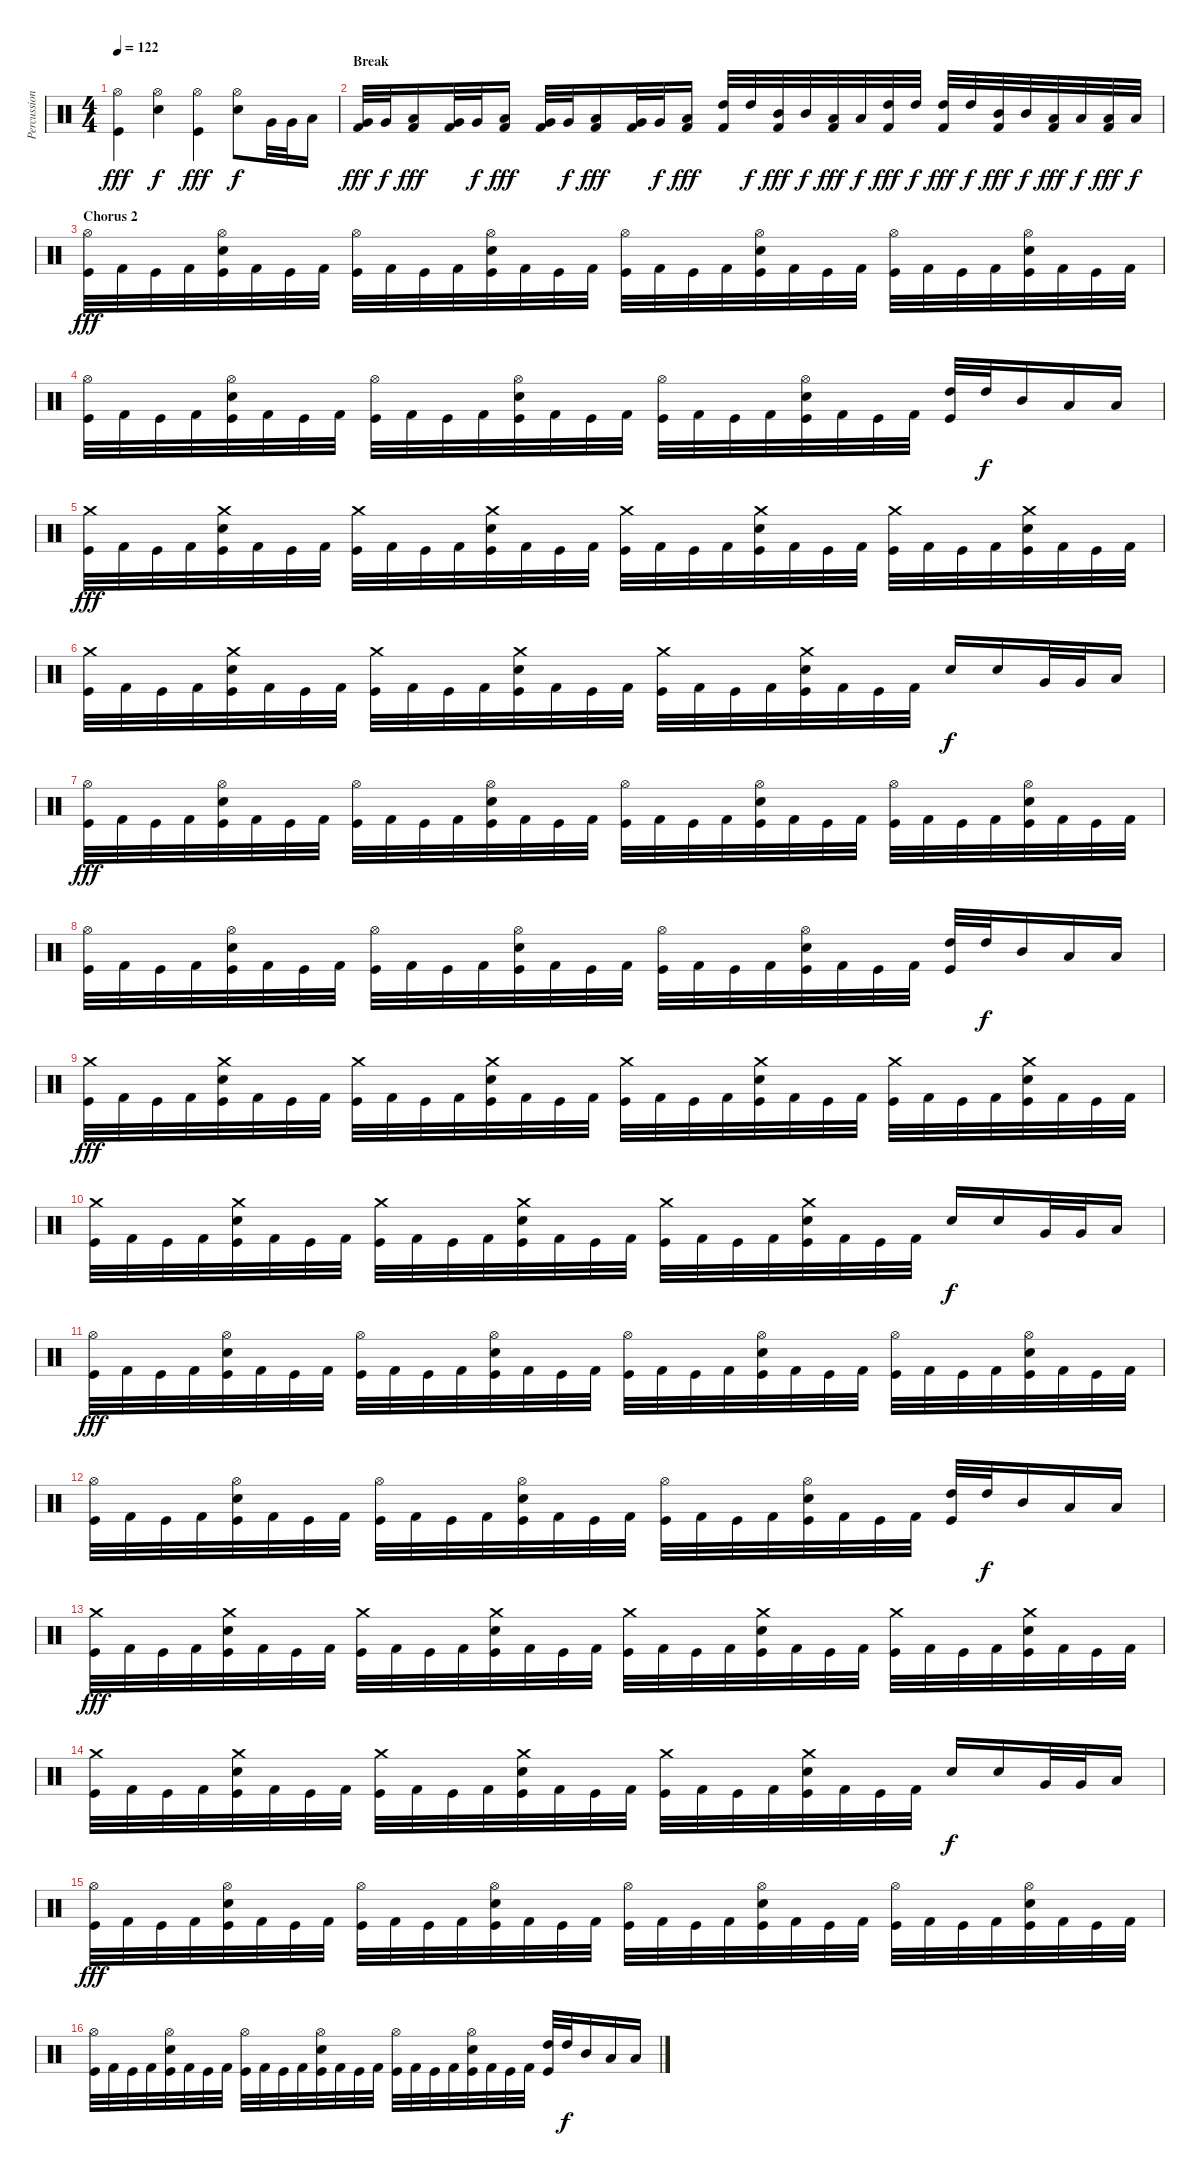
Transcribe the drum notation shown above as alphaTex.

\track ("Percussion" "Percussion") {instrument percussion}
\staff {score}
\articulation defaults
\ts (4 4)
\tempo 122
\clef neutral
\ks c
("Hi-Hat (open)" "Kick (hit)").4{dy fff} ("Hi-Hat (open)" "Electric Snare (hit)").4{dy f} ("Hi-Hat (open)" "Kick (hit)").4{dy fff} ("Hi-Hat (open)" "Electric Snare (hit)").8{dy f} "Very Low Tom (hit)".32 "Very Low Tom (hit)".32 "Low Floor Tom (hit)".16 |
\section ("" "Break")
("Very Low Tom (hit)" "Kick (hit) 2").32{dy fff volume 16} "Very Low Tom (hit)".32{dy f} ("Low Floor Tom (hit)" "Kick (hit) 2").16{dy fff} ("Very Low Tom (hit)" "Kick (hit) 2").32 "Very Low Tom (hit)".32{dy f} ("Low Floor Tom (hit)" "Kick (hit) 2").16{dy fff} ("Very Low Tom (hit)" "Kick (hit) 2").32 "Very Low Tom (hit)".32{dy f} ("Low Floor Tom (hit)" "Kick (hit) 2").16{dy fff} ("Very Low Tom (hit)" "Kick (hit) 2").32 "Very Low Tom (hit)".32{dy f} ("Low Floor Tom (hit)" "Kick (hit) 2").16{dy fff} ("High Tom (hit)" "Kick (hit) 2").32 "High Tom (hit)".32{dy f} ("Mid Tom (hit)" "Kick (hit) 2").32{dy fff} "Mid Tom (hit)".32{dy f} ("Low Tom (hit)" "Kick (hit) 2").32{dy fff} "Low Tom (hit)".32{dy f} ("High Tom (hit)" "Kick (hit) 2").32{dy fff} "High Tom (hit)".32{dy f} ("High Tom (hit)" "Kick (hit) 2").32{dy fff} "High Tom (hit)".32{dy f} ("Mid Tom (hit)" "Kick (hit) 2").32{dy fff} "Mid Tom (hit)".32{dy f} ("Low Tom (hit)" "Kick (hit) 2").32{dy fff} "Low Tom (hit)".32{dy f} ("Low Tom (hit)" "Kick (hit) 2").32{dy fff} "Low Tom (hit)".32{dy f} |
\section ("" "Chorus 2")
("Hi-Hat (open)" "Kick (hit)").32{dy fff} "Kick (hit) 2".32 "Kick (hit)".32 "Kick (hit) 2".32 ("Hi-Hat (open)" "Snare (hit) 2" "Kick (hit)").32 "Kick (hit) 2".32 "Kick (hit)".32 "Kick (hit) 2".32 ("Hi-Hat (open)" "Kick (hit)").32 "Kick (hit) 2".32 "Kick (hit)".32 "Kick (hit) 2".32 ("Hi-Hat (open)" "Snare (hit) 2" "Kick (hit)").32 "Kick (hit) 2".32 "Kick (hit)".32 "Kick (hit) 2".32 ("Hi-Hat (open)" "Kick (hit)").32 "Kick (hit) 2".32 "Kick (hit)".32 "Kick (hit) 2".32 ("Hi-Hat (open)" "Snare (hit) 2" "Kick (hit)").32 "Kick (hit) 2".32 "Kick (hit)".32 "Kick (hit) 2".32 ("Hi-Hat (open)" "Kick (hit)").32 "Kick (hit) 2".32 "Kick (hit)".32 "Kick (hit) 2".32 ("Hi-Hat (open)" "Snare (hit) 2" "Kick (hit)").32 "Kick (hit) 2".32 "Kick (hit)".32 "Kick (hit) 2".32 |
("Hi-Hat (open)" "Kick (hit)").32 "Kick (hit) 2".32 "Kick (hit)".32 "Kick (hit) 2".32 ("Hi-Hat (open)" "Snare (hit) 2" "Kick (hit)").32 "Kick (hit) 2".32 "Kick (hit)".32 "Kick (hit) 2".32 ("Hi-Hat (open)" "Kick (hit)").32 "Kick (hit) 2".32 "Kick (hit)".32 "Kick (hit) 2".32 ("Hi-Hat (open)" "Snare (hit) 2" "Kick (hit)").32 "Kick (hit) 2".32 "Kick (hit)".32 "Kick (hit) 2".32 ("Hi-Hat (open)" "Kick (hit)").32 "Kick (hit) 2".32 "Kick (hit)".32 "Kick (hit) 2".32 ("Hi-Hat (open)" "Snare (hit) 2" "Kick (hit)").32 "Kick (hit) 2".32 "Kick (hit)".32 "Kick (hit) 2".32 ("High Tom (hit)" "Kick (hit)").32 "High Tom (hit)".32{dy f} "Mid Tom (hit)".16 "Low Tom (hit)".16 "Low Tom (hit)".16 |
("Crash medium (hit)" "Kick (hit)").32{dy fff} "Kick (hit) 2".32 "Kick (hit)".32 "Kick (hit) 2".32 ("Crash medium (hit)" "Snare (hit) 2" "Kick (hit)").32 "Kick (hit) 2".32 "Kick (hit)".32 "Kick (hit) 2".32 ("Crash medium (hit)" "Kick (hit)").32 "Kick (hit) 2".32 "Kick (hit)".32 "Kick (hit) 2".32 ("Crash medium (hit)" "Snare (hit) 2" "Kick (hit)").32 "Kick (hit) 2".32 "Kick (hit)".32 "Kick (hit) 2".32 ("Crash medium (hit)" "Kick (hit)").32 "Kick (hit) 2".32 "Kick (hit)".32 "Kick (hit) 2".32 ("Crash medium (hit)" "Snare (hit) 2" "Kick (hit)").32 "Kick (hit) 2".32 "Kick (hit)".32 "Kick (hit) 2".32 ("Crash medium (hit)" "Kick (hit)").32 "Kick (hit) 2".32 "Kick (hit)".32 "Kick (hit) 2".32 ("Crash medium (hit)" "Snare (hit) 2" "Kick (hit)").32 "Kick (hit) 2".32 "Kick (hit)".32 "Kick (hit) 2".32 |
("Crash medium (hit)" "Kick (hit)").32 "Kick (hit) 2".32 "Kick (hit)".32 "Kick (hit) 2".32 ("Crash medium (hit)" "Snare (hit) 2" "Kick (hit)").32 "Kick (hit) 2".32 "Kick (hit)".32 "Kick (hit) 2".32 ("Crash medium (hit)" "Kick (hit)").32 "Kick (hit) 2".32 "Kick (hit)".32 "Kick (hit) 2".32 ("Crash medium (hit)" "Snare (hit) 2" "Kick (hit)").32 "Kick (hit) 2".32 "Kick (hit)".32 "Kick (hit) 2".32 ("Crash medium (hit)" "Kick (hit)").32 "Kick (hit) 2".32 "Kick (hit)".32 "Kick (hit) 2".32 ("Crash medium (hit)" "Snare (hit) 2" "Kick (hit)").32 "Kick (hit) 2".32 "Kick (hit)".32 "Kick (hit) 2".32 "Snare (hit) 2".16{dy f} "Snare (hit) 2".16 "Very Low Tom (hit)".32 "Very Low Tom (hit)".32 "Low Floor Tom (hit)".16 |
("Hi-Hat (open)" "Kick (hit)").32{dy fff} "Kick (hit) 2".32 "Kick (hit)".32 "Kick (hit) 2".32 ("Hi-Hat (open)" "Snare (hit) 2" "Kick (hit)").32 "Kick (hit) 2".32 "Kick (hit)".32 "Kick (hit) 2".32 ("Hi-Hat (open)" "Kick (hit)").32 "Kick (hit) 2".32 "Kick (hit)".32 "Kick (hit) 2".32 ("Hi-Hat (open)" "Snare (hit) 2" "Kick (hit)").32 "Kick (hit) 2".32 "Kick (hit)".32 "Kick (hit) 2".32 ("Hi-Hat (open)" "Kick (hit)").32 "Kick (hit) 2".32 "Kick (hit)".32 "Kick (hit) 2".32 ("Hi-Hat (open)" "Snare (hit) 2" "Kick (hit)").32 "Kick (hit) 2".32 "Kick (hit)".32 "Kick (hit) 2".32 ("Hi-Hat (open)" "Kick (hit)").32 "Kick (hit) 2".32 "Kick (hit)".32 "Kick (hit) 2".32 ("Hi-Hat (open)" "Snare (hit) 2" "Kick (hit)").32 "Kick (hit) 2".32 "Kick (hit)".32 "Kick (hit) 2".32 |
("Hi-Hat (open)" "Kick (hit)").32 "Kick (hit) 2".32 "Kick (hit)".32 "Kick (hit) 2".32 ("Hi-Hat (open)" "Snare (hit) 2" "Kick (hit)").32 "Kick (hit) 2".32 "Kick (hit)".32 "Kick (hit) 2".32 ("Hi-Hat (open)" "Kick (hit)").32 "Kick (hit) 2".32 "Kick (hit)".32 "Kick (hit) 2".32 ("Hi-Hat (open)" "Snare (hit) 2" "Kick (hit)").32 "Kick (hit) 2".32 "Kick (hit)".32 "Kick (hit) 2".32 ("Hi-Hat (open)" "Kick (hit)").32 "Kick (hit) 2".32 "Kick (hit)".32 "Kick (hit) 2".32 ("Hi-Hat (open)" "Snare (hit) 2" "Kick (hit)").32 "Kick (hit) 2".32 "Kick (hit)".32 "Kick (hit) 2".32 ("High Tom (hit)" "Kick (hit)").32 "High Tom (hit)".32{dy f} "Mid Tom (hit)".16 "Low Tom (hit)".16 "Low Tom (hit)".16 |
("Crash medium (hit)" "Kick (hit)").32{dy fff} "Kick (hit) 2".32 "Kick (hit)".32 "Kick (hit) 2".32 ("Crash medium (hit)" "Snare (hit) 2" "Kick (hit)").32 "Kick (hit) 2".32 "Kick (hit)".32 "Kick (hit) 2".32 ("Crash medium (hit)" "Kick (hit)").32 "Kick (hit) 2".32 "Kick (hit)".32 "Kick (hit) 2".32 ("Crash medium (hit)" "Snare (hit) 2" "Kick (hit)").32 "Kick (hit) 2".32 "Kick (hit)".32 "Kick (hit) 2".32 ("Crash medium (hit)" "Kick (hit)").32 "Kick (hit) 2".32 "Kick (hit)".32 "Kick (hit) 2".32 ("Crash medium (hit)" "Snare (hit) 2" "Kick (hit)").32 "Kick (hit) 2".32 "Kick (hit)".32 "Kick (hit) 2".32 ("Crash medium (hit)" "Kick (hit)").32 "Kick (hit) 2".32 "Kick (hit)".32 "Kick (hit) 2".32 ("Crash medium (hit)" "Snare (hit) 2" "Kick (hit)").32 "Kick (hit) 2".32 "Kick (hit)".32 "Kick (hit) 2".32 |
("Crash medium (hit)" "Kick (hit)").32 "Kick (hit) 2".32 "Kick (hit)".32 "Kick (hit) 2".32 ("Crash medium (hit)" "Snare (hit) 2" "Kick (hit)").32 "Kick (hit) 2".32 "Kick (hit)".32 "Kick (hit) 2".32 ("Crash medium (hit)" "Kick (hit)").32 "Kick (hit) 2".32 "Kick (hit)".32 "Kick (hit) 2".32 ("Crash medium (hit)" "Snare (hit) 2" "Kick (hit)").32 "Kick (hit) 2".32 "Kick (hit)".32 "Kick (hit) 2".32 ("Crash medium (hit)" "Kick (hit)").32 "Kick (hit) 2".32 "Kick (hit)".32 "Kick (hit) 2".32 ("Crash medium (hit)" "Snare (hit) 2" "Kick (hit)").32 "Kick (hit) 2".32 "Kick (hit)".32 "Kick (hit) 2".32 "Snare (hit) 2".16{dy f} "Snare (hit) 2".16 "Very Low Tom (hit)".32 "Very Low Tom (hit)".32 "Low Floor Tom (hit)".16 |
("Hi-Hat (open)" "Kick (hit)").32{dy fff} "Kick (hit) 2".32 "Kick (hit)".32 "Kick (hit) 2".32 ("Hi-Hat (open)" "Snare (hit) 2" "Kick (hit)").32 "Kick (hit) 2".32 "Kick (hit)".32 "Kick (hit) 2".32 ("Hi-Hat (open)" "Kick (hit)").32 "Kick (hit) 2".32 "Kick (hit)".32 "Kick (hit) 2".32 ("Hi-Hat (open)" "Snare (hit) 2" "Kick (hit)").32 "Kick (hit) 2".32 "Kick (hit)".32 "Kick (hit) 2".32 ("Hi-Hat (open)" "Kick (hit)").32 "Kick (hit) 2".32 "Kick (hit)".32 "Kick (hit) 2".32 ("Hi-Hat (open)" "Snare (hit) 2" "Kick (hit)").32 "Kick (hit) 2".32 "Kick (hit)".32 "Kick (hit) 2".32 ("Hi-Hat (open)" "Kick (hit)").32 "Kick (hit) 2".32 "Kick (hit)".32 "Kick (hit) 2".32 ("Hi-Hat (open)" "Snare (hit) 2" "Kick (hit)").32 "Kick (hit) 2".32 "Kick (hit)".32 "Kick (hit) 2".32 |
("Hi-Hat (open)" "Kick (hit)").32 "Kick (hit) 2".32 "Kick (hit)".32 "Kick (hit) 2".32 ("Hi-Hat (open)" "Snare (hit) 2" "Kick (hit)").32 "Kick (hit) 2".32 "Kick (hit)".32 "Kick (hit) 2".32 ("Hi-Hat (open)" "Kick (hit)").32 "Kick (hit) 2".32 "Kick (hit)".32 "Kick (hit) 2".32 ("Hi-Hat (open)" "Snare (hit) 2" "Kick (hit)").32 "Kick (hit) 2".32 "Kick (hit)".32 "Kick (hit) 2".32 ("Hi-Hat (open)" "Kick (hit)").32 "Kick (hit) 2".32 "Kick (hit)".32 "Kick (hit) 2".32 ("Hi-Hat (open)" "Snare (hit) 2" "Kick (hit)").32 "Kick (hit) 2".32 "Kick (hit)".32 "Kick (hit) 2".32 ("High Tom (hit)" "Kick (hit)").32 "High Tom (hit)".32{dy f} "Mid Tom (hit)".16 "Low Tom (hit)".16 "Low Tom (hit)".16 |
("Crash medium (hit)" "Kick (hit)").32{dy fff} "Kick (hit) 2".32 "Kick (hit)".32 "Kick (hit) 2".32 ("Crash medium (hit)" "Snare (hit) 2" "Kick (hit)").32 "Kick (hit) 2".32 "Kick (hit)".32 "Kick (hit) 2".32 ("Crash medium (hit)" "Kick (hit)").32 "Kick (hit) 2".32 "Kick (hit)".32 "Kick (hit) 2".32 ("Crash medium (hit)" "Snare (hit) 2" "Kick (hit)").32 "Kick (hit) 2".32 "Kick (hit)".32 "Kick (hit) 2".32 ("Crash medium (hit)" "Kick (hit)").32 "Kick (hit) 2".32 "Kick (hit)".32 "Kick (hit) 2".32 ("Crash medium (hit)" "Snare (hit) 2" "Kick (hit)").32 "Kick (hit) 2".32 "Kick (hit)".32 "Kick (hit) 2".32 ("Crash medium (hit)" "Kick (hit)").32 "Kick (hit) 2".32 "Kick (hit)".32 "Kick (hit) 2".32 ("Crash medium (hit)" "Snare (hit) 2" "Kick (hit)").32 "Kick (hit) 2".32 "Kick (hit)".32 "Kick (hit) 2".32 |
("Crash medium (hit)" "Kick (hit)").32 "Kick (hit) 2".32 "Kick (hit)".32 "Kick (hit) 2".32 ("Crash medium (hit)" "Snare (hit) 2" "Kick (hit)").32 "Kick (hit) 2".32 "Kick (hit)".32 "Kick (hit) 2".32 ("Crash medium (hit)" "Kick (hit)").32 "Kick (hit) 2".32 "Kick (hit)".32 "Kick (hit) 2".32 ("Crash medium (hit)" "Snare (hit) 2" "Kick (hit)").32 "Kick (hit) 2".32 "Kick (hit)".32 "Kick (hit) 2".32 ("Crash medium (hit)" "Kick (hit)").32 "Kick (hit) 2".32 "Kick (hit)".32 "Kick (hit) 2".32 ("Crash medium (hit)" "Snare (hit) 2" "Kick (hit)").32 "Kick (hit) 2".32 "Kick (hit)".32 "Kick (hit) 2".32 "Snare (hit) 2".16{dy f} "Snare (hit) 2".16 "Very Low Tom (hit)".32 "Very Low Tom (hit)".32 "Low Floor Tom (hit)".16 |
("Hi-Hat (open)" "Kick (hit)").32{dy fff} "Kick (hit) 2".32 "Kick (hit)".32 "Kick (hit) 2".32 ("Hi-Hat (open)" "Snare (hit) 2" "Kick (hit)").32 "Kick (hit) 2".32 "Kick (hit)".32 "Kick (hit) 2".32 ("Hi-Hat (open)" "Kick (hit)").32 "Kick (hit) 2".32 "Kick (hit)".32 "Kick (hit) 2".32 ("Hi-Hat (open)" "Snare (hit) 2" "Kick (hit)").32 "Kick (hit) 2".32 "Kick (hit)".32 "Kick (hit) 2".32 ("Hi-Hat (open)" "Kick (hit)").32 "Kick (hit) 2".32 "Kick (hit)".32 "Kick (hit) 2".32 ("Hi-Hat (open)" "Snare (hit) 2" "Kick (hit)").32 "Kick (hit) 2".32 "Kick (hit)".32 "Kick (hit) 2".32 ("Hi-Hat (open)" "Kick (hit)").32 "Kick (hit) 2".32 "Kick (hit)".32 "Kick (hit) 2".32 ("Hi-Hat (open)" "Snare (hit) 2" "Kick (hit)").32 "Kick (hit) 2".32 "Kick (hit)".32 "Kick (hit) 2".32 |
("Hi-Hat (open)" "Kick (hit)").32 "Kick (hit) 2".32 "Kick (hit)".32 "Kick (hit) 2".32 ("Hi-Hat (open)" "Snare (hit) 2" "Kick (hit)").32 "Kick (hit) 2".32 "Kick (hit)".32 "Kick (hit) 2".32 ("Hi-Hat (open)" "Kick (hit)").32 "Kick (hit) 2".32 "Kick (hit)".32 "Kick (hit) 2".32 ("Hi-Hat (open)" "Snare (hit) 2" "Kick (hit)").32 "Kick (hit) 2".32 "Kick (hit)".32 "Kick (hit) 2".32 ("Hi-Hat (open)" "Kick (hit)").32 "Kick (hit) 2".32 "Kick (hit)".32 "Kick (hit) 2".32 ("Hi-Hat (open)" "Snare (hit) 2" "Kick (hit)").32 "Kick (hit) 2".32 "Kick (hit)".32 "Kick (hit) 2".32 ("High Tom (hit)" "Kick (hit)").32 "High Tom (hit)".32{dy f} "Mid Tom (hit)".16 "Low Tom (hit)".16 "Low Tom (hit)".16
